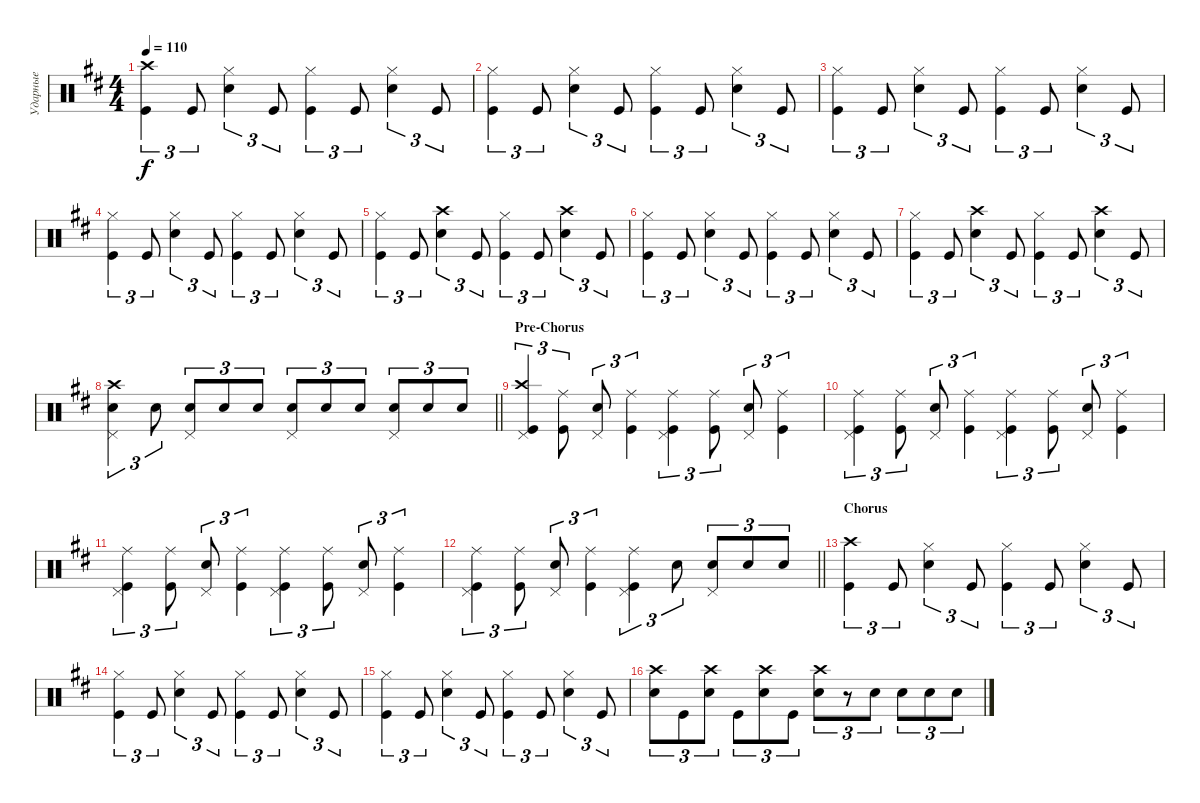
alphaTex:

\track ("Ударные" "Ударные") {instrument percussion}
\staff {score}
\articulation defaults
\ts (4 4)
\tempo 110
\clef neutral
\ks bminor
("Kick (hit)" "Crash high (hit)").4{tu (3 2) dy f} "Kick (hit)".8{tu (3 2)} ("Snare (hit) 2" "Hi-Hat (closed)").4{tu (3 2)} "Kick (hit)".8{tu (3 2)} ("Kick (hit)" "Hi-Hat (closed)").4{tu (3 2)} "Kick (hit)".8{tu (3 2)} ("Snare (hit) 2" "Hi-Hat (closed)").4{tu (3 2)} "Kick (hit)".8{tu (3 2)} |
("Kick (hit)" "Hi-Hat (closed)").4{tu (3 2)} "Kick (hit)".8{tu (3 2)} ("Snare (hit) 2" "Hi-Hat (closed)").4{tu (3 2)} "Kick (hit)".8{tu (3 2)} ("Kick (hit)" "Hi-Hat (closed)").4{tu (3 2)} "Kick (hit)".8{tu (3 2)} ("Snare (hit) 2" "Hi-Hat (closed)").4{tu (3 2)} "Kick (hit)".8{tu (3 2)} |
("Kick (hit)" "Hi-Hat (closed)").4{tu (3 2)} "Kick (hit)".8{tu (3 2)} ("Snare (hit) 2" "Hi-Hat (closed)").4{tu (3 2)} "Kick (hit)".8{tu (3 2)} ("Kick (hit)" "Hi-Hat (closed)").4{tu (3 2)} "Kick (hit)".8{tu (3 2)} ("Snare (hit) 2" "Hi-Hat (closed)").4{tu (3 2)} "Kick (hit)".8{tu (3 2)} |
("Kick (hit)" "Hi-Hat (closed)").4{tu (3 2)} "Kick (hit)".8{tu (3 2)} ("Snare (hit) 2" "Hi-Hat (closed)").4{tu (3 2)} "Kick (hit)".8{tu (3 2)} ("Kick (hit)" "Hi-Hat (closed)").4{tu (3 2)} "Kick (hit)".8{tu (3 2)} ("Snare (hit) 2" "Hi-Hat (closed)").4{tu (3 2)} "Kick (hit)".8{tu (3 2)} |
("Kick (hit)" "Hi-Hat (closed)").4{tu (3 2)} "Kick (hit)".8{tu (3 2)} ("Snare (hit) 2" "Crash high (hit)").4{tu (3 2)} "Kick (hit)".8{tu (3 2)} ("Kick (hit)" "Hi-Hat (closed)").4{tu (3 2)} "Kick (hit)".8{tu (3 2)} ("Snare (hit) 2" "Crash high (hit)").4{tu (3 2)} "Kick (hit)".8{tu (3 2)} |
("Kick (hit)" "Hi-Hat (closed)").4{tu (3 2)} "Kick (hit)".8{tu (3 2)} ("Snare (hit) 2" "Hi-Hat (closed)").4{tu (3 2)} "Kick (hit)".8{tu (3 2)} ("Kick (hit)" "Hi-Hat (closed)").4{tu (3 2)} "Kick (hit)".8{tu (3 2)} ("Snare (hit) 2" "Hi-Hat (closed)").4{tu (3 2)} "Kick (hit)".8{tu (3 2)} |
("Kick (hit)" "Hi-Hat (closed)").4{tu (3 2)} "Kick (hit)".8{tu (3 2)} ("Snare (hit) 2" "Crash high (hit)").4{tu (3 2)} "Kick (hit)".8{tu (3 2)} ("Kick (hit)" "Hi-Hat (closed)").4{tu (3 2)} "Kick (hit)".8{tu (3 2)} ("Snare (hit) 2" "Crash high (hit)").4{tu (3 2)} "Kick (hit)".8{tu (3 2)} |
\barLineRight lightlight
("Snare (hit) 2" "Crash high (hit)" "Pedal Hi-Hat (hit)").4{tu (3 2)} "Snare (hit) 2".8{tu (3 2)} ("Snare (hit) 2" "Pedal Hi-Hat (hit)").8{tu (3 2)} "Snare (hit) 2".8{tu (3 2)} "Snare (hit) 2".8{tu (3 2)} ("Snare (hit) 2" "Pedal Hi-Hat (hit)").8{tu (3 2)} "Snare (hit) 2".8{tu (3 2)} "Snare (hit) 2".8{tu (3 2)} ("Snare (hit) 2" "Pedal Hi-Hat (hit)").8{tu (3 2)} "Snare (hit) 2".8{tu (3 2)} "Snare (hit) 2".8{tu (3 2)} |
\section ("" "Pre-Chorus")
("Kick (hit)" "Crash high (hit)" "Pedal Hi-Hat (hit)").4{tu (3 2)} ("Kick (hit)" "Ride (middle)").8{tu (3 2)} ("Snare (hit) 2" "Pedal Hi-Hat (hit)").8{tu (3 2)} ("Kick (hit)" "Ride (middle)").4{tu (3 2)} ("Kick (hit)" "Ride (middle)" "Pedal Hi-Hat (hit)").4{tu (3 2)} ("Kick (hit)" "Ride (middle)").8{tu (3 2)} ("Snare (hit) 2" "Pedal Hi-Hat (hit)").8{tu (3 2)} ("Kick (hit)" "Ride (middle)").4{tu (3 2)} |
("Kick (hit)" "Ride (middle)" "Pedal Hi-Hat (hit)").4{tu (3 2)} ("Kick (hit)" "Ride (middle)").8{tu (3 2)} ("Snare (hit) 2" "Pedal Hi-Hat (hit)").8{tu (3 2)} ("Kick (hit)" "Ride (middle)").4{tu (3 2)} ("Kick (hit)" "Ride (middle)" "Pedal Hi-Hat (hit)").4{tu (3 2)} ("Kick (hit)" "Ride (middle)").8{tu (3 2)} ("Snare (hit) 2" "Pedal Hi-Hat (hit)").8{tu (3 2)} ("Kick (hit)" "Ride (middle)").4{tu (3 2)} |
("Kick (hit)" "Ride (middle)" "Pedal Hi-Hat (hit)").4{tu (3 2)} ("Kick (hit)" "Ride (middle)").8{tu (3 2)} ("Snare (hit) 2" "Pedal Hi-Hat (hit)").8{tu (3 2)} ("Kick (hit)" "Ride (middle)").4{tu (3 2)} ("Kick (hit)" "Ride (middle)" "Pedal Hi-Hat (hit)").4{tu (3 2)} ("Kick (hit)" "Ride (middle)").8{tu (3 2)} ("Snare (hit) 2" "Pedal Hi-Hat (hit)").8{tu (3 2)} ("Kick (hit)" "Ride (middle)").4{tu (3 2)} |
\barLineRight lightlight
("Kick (hit)" "Ride (middle)" "Pedal Hi-Hat (hit)").4{tu (3 2)} ("Kick (hit)" "Ride (middle)").8{tu (3 2)} ("Snare (hit) 2" "Pedal Hi-Hat (hit)").8{tu (3 2)} ("Kick (hit)" "Ride (middle)").4{tu (3 2)} ("Kick (hit)" "Ride (middle)" "Pedal Hi-Hat (hit)").4{tu (3 2)} "Snare (hit) 2".8{tu (3 2)} ("Snare (hit) 2" "Pedal Hi-Hat (hit)").8{tu (3 2)} "Snare (hit) 2".8{tu (3 2)} "Snare (hit) 2".8{tu (3 2)} |
\section ("" "Chorus")
("Kick (hit)" "Crash high (hit)").4{tu (3 2)} "Kick (hit)".8{tu (3 2)} ("Snare (hit) 2" "Hi-Hat (closed)").4{tu (3 2)} "Kick (hit)".8{tu (3 2)} ("Kick (hit)" "Hi-Hat (closed)").4{tu (3 2)} "Kick (hit)".8{tu (3 2)} ("Snare (hit) 2" "Hi-Hat (closed)").4{tu (3 2)} "Kick (hit)".8{tu (3 2)} |
("Kick (hit)" "Hi-Hat (closed)").4{tu (3 2)} "Kick (hit)".8{tu (3 2)} ("Snare (hit) 2" "Hi-Hat (closed)").4{tu (3 2)} "Kick (hit)".8{tu (3 2)} ("Kick (hit)" "Hi-Hat (closed)").4{tu (3 2)} "Kick (hit)".8{tu (3 2)} ("Snare (hit) 2" "Hi-Hat (closed)").4{tu (3 2)} "Kick (hit)".8{tu (3 2)} |
("Kick (hit)" "Hi-Hat (closed)").4{tu (3 2)} "Kick (hit)".8{tu (3 2)} ("Snare (hit) 2" "Hi-Hat (closed)").4{tu (3 2)} "Kick (hit)".8{tu (3 2)} ("Kick (hit)" "Hi-Hat (closed)").4{tu (3 2)} "Kick (hit)".8{tu (3 2)} ("Snare (hit) 2" "Hi-Hat (closed)").4{tu (3 2)} "Kick (hit)".8{tu (3 2)} |
("Snare (hit) 2" "Crash high (hit)").8{tu (3 2)} "Kick (hit)".8{tu (3 2)} ("Snare (hit) 2" "Crash high (hit)").8{tu (3 2)} "Kick (hit)".8{tu (3 2)} ("Snare (hit) 2" "Crash high (hit)").8{tu (3 2)} "Kick (hit)".8{tu (3 2)} ("Snare (hit) 2" "Crash high (hit)").8{tu (3 2)} r.8{tu (3 2)} "Snare (hit) 2".8{tu (3 2)} "Snare (hit) 2".8{tu (3 2)} "Snare (hit) 2".8{tu (3 2)} "Snare (hit) 2".8{tu (3 2)}
